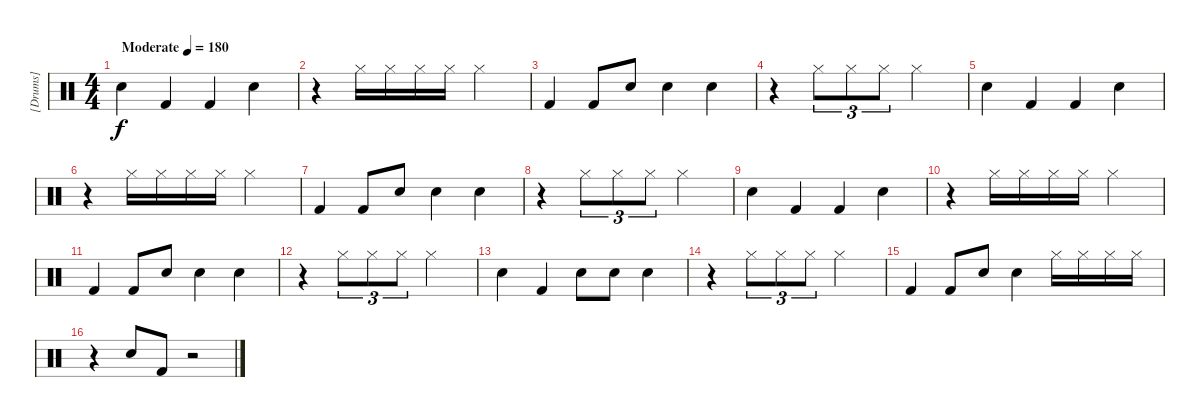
\track ("[Drums]" "[Drums]") {instrument percussion}
\staff {score}
\articulation defaults
\ts (4 4)
\tempo (180 "Moderate")
\clef neutral
\ks c "Electric Snare (hit)".4{dy f} "Kick (hit) 2".4 "Kick (hit) 2".4 "Electric Snare (hit)".4
|
r.4 "Hi-Hat (closed)".16 "Hi-Hat (closed)".16 "Hi-Hat (closed)".16 "Hi-Hat (closed)".16 "Hi-Hat (closed)".2 |
"Kick (hit) 2".4 "Kick (hit) 2".8 "Electric Snare (hit)".8 "Electric Snare (hit)".4 "Electric Snare (hit)".4 |
r.4 "Hi-Hat (closed)".8{tu (3 2)} "Hi-Hat (closed)".8{tu (3 2)} "Hi-Hat (closed)".8{tu (3 2)} "Hi-Hat (closed)".2 |
"Electric Snare (hit)".4 "Kick (hit) 2".4 "Kick (hit) 2".4 "Electric Snare (hit)".4 |
r.4 "Hi-Hat (closed)".16 "Hi-Hat (closed)".16 "Hi-Hat (closed)".16 "Hi-Hat (closed)".16 "Hi-Hat (closed)".2 |
"Kick (hit) 2".4 "Kick (hit) 2".8 "Electric Snare (hit)".8 "Electric Snare (hit)".4 "Electric Snare (hit)".4 |
r.4 "Hi-Hat (closed)".8{tu (3 2)} "Hi-Hat (closed)".8{tu (3 2)} "Hi-Hat (closed)".8{tu (3 2)} "Hi-Hat (closed)".2 |
"Electric Snare (hit)".4 "Kick (hit) 2".4 "Kick (hit) 2".4 "Electric Snare (hit)".4 |
r.4 "Hi-Hat (closed)".16 "Hi-Hat (closed)".16 "Hi-Hat (closed)".16 "Hi-Hat (closed)".16 "Hi-Hat (closed)".2 |
"Kick (hit) 2".4 "Kick (hit) 2".8 "Electric Snare (hit)".8 "Electric Snare (hit)".4 "Electric Snare (hit)".4 |
r.4 "Hi-Hat (closed)".8{tu (3 2)} "Hi-Hat (closed)".8{tu (3 2)} "Hi-Hat (closed)".8{tu (3 2)} "Hi-Hat (closed)".2 |
"Electric Snare (hit)".4 "Kick (hit) 2".4 "Electric Snare (hit)".8 "Electric Snare (hit)".8 "Electric Snare (hit)".4 |
r.4 "Hi-Hat (closed)".8{tu (3 2)} "Hi-Hat (closed)".8{tu (3 2)} "Hi-Hat (closed)".8{tu (3 2)} "Hi-Hat (closed)".2 |
"Kick (hit) 2".4 "Kick (hit) 2".8 "Electric Snare (hit)".8 "Electric Snare (hit)".4 "Hi-Hat (closed)".16 "Hi-Hat (closed)".16 "Hi-Hat (closed)".16 "Hi-Hat (closed)".16 |
r.4 "Electric Snare (hit)".8 "Kick (hit) 2".8 r.2
